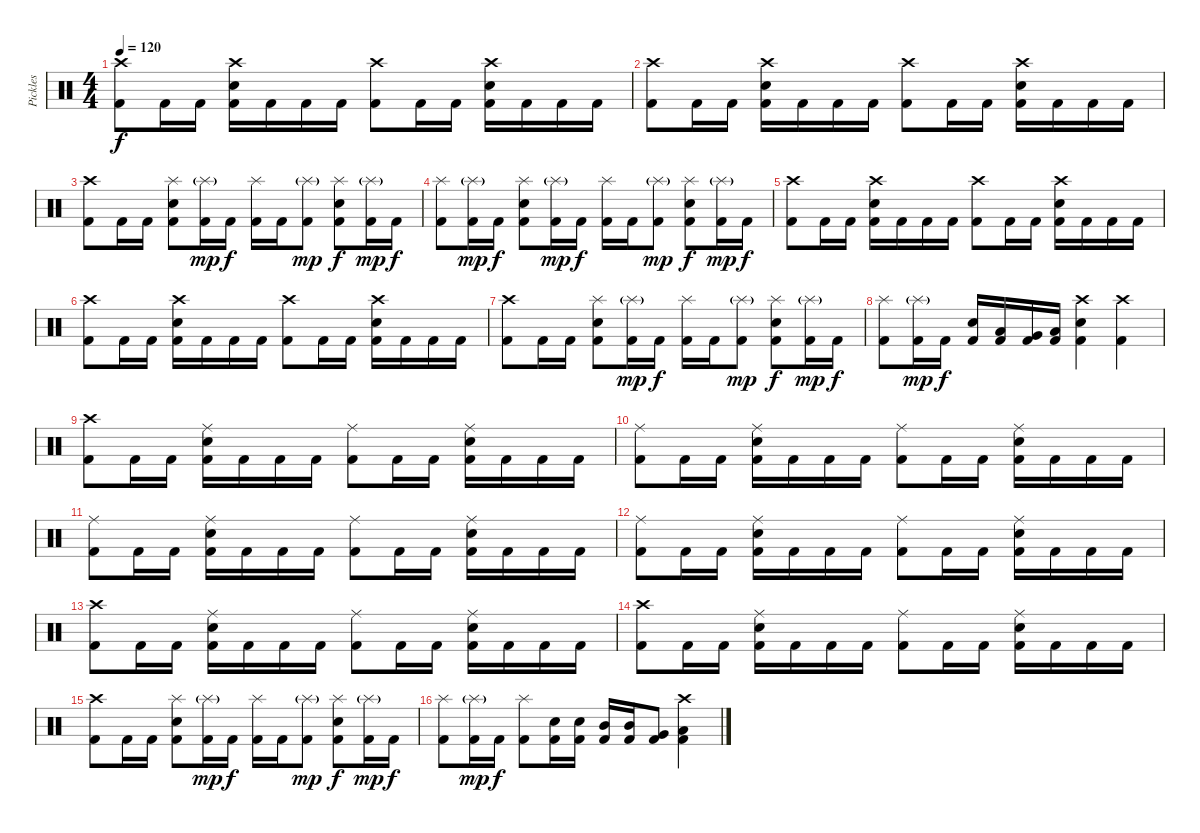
\track ("Pickles" "Pickles") {instrument percussion}
\staff {score}
\articulation defaults
\ts (4 4)
\tempo 120
\clef neutral
\ks c
("Crash high (hit)" "Kick (hit) 2").8{dy f} "Kick (hit) 2".16 "Kick (hit) 2".16 ("Crash high (hit)" "Snare (hit) 2" "Kick (hit) 2").16 "Kick (hit) 2".16 "Kick (hit) 2".16 "Kick (hit) 2".16 ("Crash high (hit)" "Kick (hit) 2").8 "Kick (hit) 2".16 "Kick (hit) 2".16 ("Crash high (hit)" "Snare (hit) 2" "Kick (hit) 2").16 "Kick (hit) 2".16 "Kick (hit) 2".16 "Kick (hit) 2".16 |
("Crash high (hit)" "Kick (hit) 2").8 "Kick (hit) 2".16 "Kick (hit) 2".16 ("Crash high (hit)" "Snare (hit) 2" "Kick (hit) 2").16 "Kick (hit) 2".16 "Kick (hit) 2".16 "Kick (hit) 2".16 ("Crash high (hit)" "Kick (hit) 2").8 "Kick (hit) 2".16 "Kick (hit) 2".16 ("Crash high (hit)" "Snare (hit) 2" "Kick (hit) 2").16 "Kick (hit) 2".16 "Kick (hit) 2".16 "Kick (hit) 2".16 |
("Crash high (hit)" "Kick (hit) 2").8 "Kick (hit) 2".16 "Kick (hit) 2".16 ("Splash (hit)" "Snare (hit) 2" "Kick (hit) 2").8 ("Splash (hit)"{g} "Kick (hit) 2").16{dy mp} "Kick (hit) 2".16{dy f} ("Splash (hit)" "Kick (hit) 2").16 "Kick (hit) 2".16 ("Splash (hit)"{g} "Kick (hit) 2").8{dy mp} ("Splash (hit)" "Snare (hit) 2" "Kick (hit) 2").8{dy f} ("Splash (hit)"{g} "Kick (hit) 2").16{dy mp} "Kick (hit) 2".16{dy f} |
("Splash (hit)" "Kick (hit) 2").8 ("Splash (hit)"{g} "Kick (hit) 2").16{dy mp} "Kick (hit) 2".16{dy f} ("Splash (hit)" "Snare (hit) 2" "Kick (hit) 2").8 ("Splash (hit)"{g} "Kick (hit) 2").16{dy mp} "Kick (hit) 2".16{dy f} ("Splash (hit)" "Kick (hit) 2").16 "Kick (hit) 2".16 ("Splash (hit)"{g} "Kick (hit) 2").8{dy mp} ("Splash (hit)" "Snare (hit) 2" "Kick (hit) 2").8{dy f} ("Splash (hit)"{g} "Kick (hit) 2").16{dy mp} "Kick (hit) 2".16{dy f} |
("Crash high (hit)" "Kick (hit) 2").8 "Kick (hit) 2".16 "Kick (hit) 2".16 ("Crash high (hit)" "Snare (hit) 2" "Kick (hit) 2").16 "Kick (hit) 2".16 "Kick (hit) 2".16 "Kick (hit) 2".16 ("Crash high (hit)" "Kick (hit) 2").8 "Kick (hit) 2".16 "Kick (hit) 2".16 ("Crash high (hit)" "Snare (hit) 2" "Kick (hit) 2").16 "Kick (hit) 2".16 "Kick (hit) 2".16 "Kick (hit) 2".16 |
("Crash high (hit)" "Kick (hit) 2").8 "Kick (hit) 2".16 "Kick (hit) 2".16 ("Crash high (hit)" "Snare (hit) 2" "Kick (hit) 2").16 "Kick (hit) 2".16 "Kick (hit) 2".16 "Kick (hit) 2".16 ("Crash high (hit)" "Kick (hit) 2").8 "Kick (hit) 2".16 "Kick (hit) 2".16 ("Crash high (hit)" "Snare (hit) 2" "Kick (hit) 2").16 "Kick (hit) 2".16 "Kick (hit) 2".16 "Kick (hit) 2".16 |
("Crash high (hit)" "Kick (hit) 2").8 "Kick (hit) 2".16 "Kick (hit) 2".16 ("Splash (hit)" "Snare (hit) 2" "Kick (hit) 2").8 ("Splash (hit)"{g} "Kick (hit) 2").16{dy mp} "Kick (hit) 2".16{dy f} ("Splash (hit)" "Kick (hit) 2").16 "Kick (hit) 2".16 ("Splash (hit)"{g} "Kick (hit) 2").8{dy mp} ("Splash (hit)" "Snare (hit) 2" "Kick (hit) 2").8{dy f} ("Splash (hit)"{g} "Kick (hit) 2").16{dy mp} "Kick (hit) 2".16{dy f} |
("Splash (hit)" "Kick (hit) 2").8 ("Splash (hit)"{g} "Kick (hit) 2").16{dy mp} "Kick (hit) 2".16{dy f} ("Snare (hit) 2" "Kick (hit) 2").16 ("Low Tom (hit)" "Kick (hit) 2").16 ("Very Low Tom (hit)" "Kick (hit) 2").16 ("Low Floor Tom (hit)" "Kick (hit) 2").16 ("Crash high (hit)" "Snare (hit) 2" "Kick (hit) 2").4 ("Crash high (hit)" "Kick (hit) 2").4 |
("Crash high (hit)" "Kick (hit) 2").8 "Kick (hit) 2".16 "Kick (hit) 2".16 ("Ride (middle)" "Snare (hit) 2" "Kick (hit) 2").16 "Kick (hit) 2".16 "Kick (hit) 2".16 "Kick (hit) 2".16 ("Ride (middle)" "Kick (hit) 2").8 "Kick (hit) 2".16 "Kick (hit) 2".16 ("Ride (middle)" "Snare (hit) 2" "Kick (hit) 2").16 "Kick (hit) 2".16 "Kick (hit) 2".16 "Kick (hit) 2".16 |
("Ride (middle)" "Kick (hit) 2").8 "Kick (hit) 2".16 "Kick (hit) 2".16 ("Ride (middle)" "Snare (hit) 2" "Kick (hit) 2").16 "Kick (hit) 2".16 "Kick (hit) 2".16 "Kick (hit) 2".16 ("Ride (middle)" "Kick (hit) 2").8 "Kick (hit) 2".16 "Kick (hit) 2".16 ("Ride (middle)" "Snare (hit) 2" "Kick (hit) 2").16 "Kick (hit) 2".16 "Kick (hit) 2".16 "Kick (hit) 2".16 |
("Ride (middle)" "Kick (hit) 2").8 "Kick (hit) 2".16 "Kick (hit) 2".16 ("Ride (middle)" "Snare (hit) 2" "Kick (hit) 2").16 "Kick (hit) 2".16 "Kick (hit) 2".16 "Kick (hit) 2".16 ("Ride (middle)" "Kick (hit) 2").8 "Kick (hit) 2".16 "Kick (hit) 2".16 ("Ride (middle)" "Snare (hit) 2" "Kick (hit) 2").16 "Kick (hit) 2".16 "Kick (hit) 2".16 "Kick (hit) 2".16 |
("Ride (middle)" "Kick (hit) 2").8 "Kick (hit) 2".16 "Kick (hit) 2".16 ("Ride (middle)" "Snare (hit) 2" "Kick (hit) 2").16 "Kick (hit) 2".16 "Kick (hit) 2".16 "Kick (hit) 2".16 ("Ride (middle)" "Kick (hit) 2").8 "Kick (hit) 2".16 "Kick (hit) 2".16 ("Ride (middle)" "Snare (hit) 2" "Kick (hit) 2").16 "Kick (hit) 2".16 "Kick (hit) 2".16 "Kick (hit) 2".16 |
("Crash high (hit)" "Kick (hit) 2").8 "Kick (hit) 2".16 "Kick (hit) 2".16 ("Ride (middle)" "Snare (hit) 2" "Kick (hit) 2").16 "Kick (hit) 2".16 "Kick (hit) 2".16 "Kick (hit) 2".16 ("Ride (middle)" "Kick (hit) 2").8 "Kick (hit) 2".16 "Kick (hit) 2".16 ("Ride (middle)" "Snare (hit) 2" "Kick (hit) 2").16 "Kick (hit) 2".16 "Kick (hit) 2".16 "Kick (hit) 2".16 |
("Crash high (hit)" "Kick (hit) 2").8 "Kick (hit) 2".16 "Kick (hit) 2".16 ("Ride (middle)" "Snare (hit) 2" "Kick (hit) 2").16 "Kick (hit) 2".16 "Kick (hit) 2".16 "Kick (hit) 2".16 ("Ride (middle)" "Kick (hit) 2").8 "Kick (hit) 2".16 "Kick (hit) 2".16 ("Ride (middle)" "Snare (hit) 2" "Kick (hit) 2").16 "Kick (hit) 2".16 "Kick (hit) 2".16 "Kick (hit) 2".16 |
("Crash high (hit)" "Kick (hit) 2").8 "Kick (hit) 2".16 "Kick (hit) 2".16 ("Splash (hit)" "Snare (hit) 2" "Kick (hit) 2").8 ("Splash (hit)"{g} "Kick (hit) 2").16{dy mp} "Kick (hit) 2".16{dy f} ("Splash (hit)" "Kick (hit) 2").16 "Kick (hit) 2".16 ("Splash (hit)"{g} "Kick (hit) 2").8{dy mp} ("Splash (hit)" "Snare (hit) 2" "Kick (hit) 2").8{dy f} ("Splash (hit)"{g} "Kick (hit) 2").16{dy mp} "Kick (hit) 2".16{dy f} |
("Splash (hit)" "Kick (hit) 2").8 ("Splash (hit)"{g} "Kick (hit) 2").16{dy mp} "Kick (hit) 2".16{dy f} ("Splash (hit)" "Kick (hit) 2").8 ("Snare (hit) 2" "Kick (hit) 2").16 ("Snare (hit) 2" "Kick (hit) 2").16 ("Mid Tom (hit)" "Kick (hit) 2").16 ("Mid Tom (hit)" "Kick (hit) 2").16 ("Very Low Tom (hit)" "Kick (hit) 2").8 ("Crash high (hit)" "Low Floor Tom (hit)" "Kick (hit) 2").4
